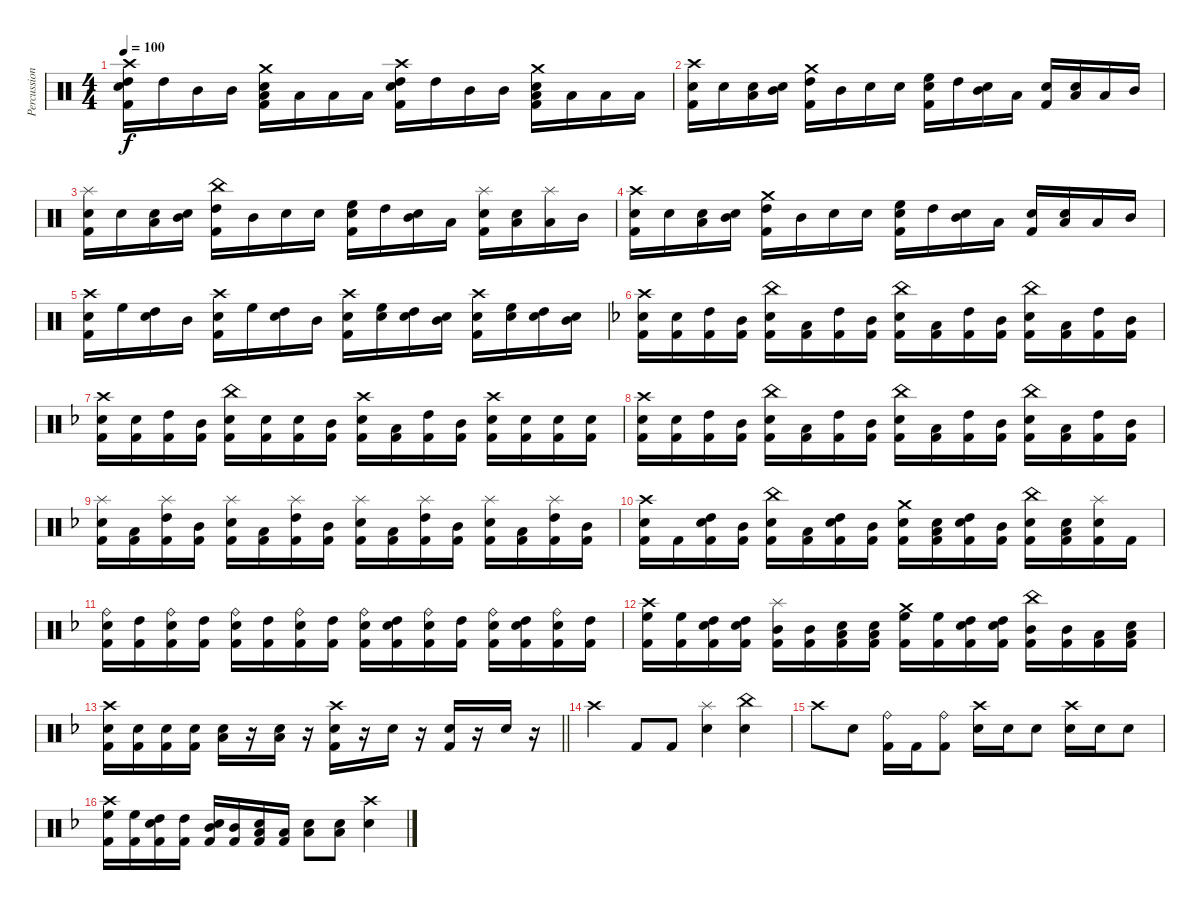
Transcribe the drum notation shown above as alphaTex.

\track ("Percussion" "Percussion") {instrument percussion}
\staff {score}
\articulation defaults
\ts (4 4)
\tempo 100
\clef neutral
\ks c
("Crash high (hit)" "High Tom (hit)" "Snare (hit) 2" "Kick (hit) 2").16{dy f} "High Tom (hit)".16 "Mid Tom (hit)".16 "Mid Tom (hit)".16 ("Crash medium (hit)" "Low Tom (hit)" "Snare (hit) 2" "Kick (hit) 2").16 "Low Tom (hit)".16 "Low Floor Tom (hit)".16 "Low Floor Tom (hit)".16 ("Crash high (hit)" "High Tom (hit)" "Snare (hit) 2" "Kick (hit) 2").16 "High Tom (hit)".16 "Mid Tom (hit)".16 "Mid Tom (hit)".16 ("Crash medium (hit)" "Low Tom (hit)" "Snare (hit) 2" "Kick (hit) 2").16 "Low Tom (hit)".16 "Low Floor Tom (hit)".16 "Low Floor Tom (hit)".16 |
("Crash high (hit)" "Snare (hit) 2" "Kick (hit) 2").16 "Snare (hit) 2".16 ("Low Tom (hit)" "Snare (hit) 2").16 ("Mid Tom (hit)" "Snare (hit) 2").16 ("Crash medium (hit)" "High Tom (hit)" "Kick (hit) 2").16 "Mid Tom (hit)".16 "Snare (hit) 2".16 "Snare (hit) 2".16 ("High Floor Tom (hit)" "Snare (hit) 2" "Kick (hit) 2").16 "High Tom (hit)".16 ("Mid Tom (hit)" "Snare (hit) 2").16 "Low Tom (hit)".16 ("Snare (hit) 2" "Kick (hit) 2").16 ("Low Floor Tom (hit)" "Snare (hit) 2").16 "Low Tom (hit)".16 "Mid Tom (hit)".16 |
("Splash (hit)" "Snare (hit) 2" "Kick (hit) 2").16 "Snare (hit) 2".16 ("Low Tom (hit)" "Snare (hit) 2").16 ("Mid Tom (hit)" "Snare (hit) 2").16 ("China (hit)" "High Tom (hit)" "Kick (hit) 2").16 "Mid Tom (hit)".16 "Snare (hit) 2".16 "Snare (hit) 2".16 ("High Floor Tom (hit)" "Snare (hit) 2" "Kick (hit) 2").16 "High Tom (hit)".16 ("Mid Tom (hit)" "Snare (hit) 2").16 "Low Tom (hit)".16 ("Splash (hit)" "Snare (hit) 2" "Kick (hit) 2").16 ("Low Floor Tom (hit)" "Snare (hit) 2").16 ("Splash (hit)" "Low Tom (hit)").16 "Mid Tom (hit)".16 |
("Crash high (hit)" "Snare (hit) 2" "Kick (hit) 2").16 "Snare (hit) 2".16 ("Low Tom (hit)" "Snare (hit) 2").16 ("Mid Tom (hit)" "Snare (hit) 2").16 ("Crash medium (hit)" "High Tom (hit)" "Kick (hit) 2").16 "Mid Tom (hit)".16 "Snare (hit) 2".16 "Snare (hit) 2".16 ("High Floor Tom (hit)" "Snare (hit) 2" "Kick (hit) 2").16 "High Tom (hit)".16 ("Mid Tom (hit)" "Snare (hit) 2").16 "Low Tom (hit)".16 ("Snare (hit) 2" "Kick (hit) 2").16 ("Low Floor Tom (hit)" "Snare (hit) 2").16 "Low Tom (hit)".16 "Mid Tom (hit)".16 |
("Crash high (hit)" "Snare (hit) 2" "Kick (hit) 2").16 "High Floor Tom (hit)".16 ("High Tom (hit)" "Snare (hit) 2").16 "Mid Tom (hit)".16 ("Crash high (hit)" "Snare (hit) 2" "Kick (hit) 2").16 "High Floor Tom (hit)".16 ("High Tom (hit)" "Snare (hit) 2").16 "Mid Tom (hit)".16 ("Crash high (hit)" "Snare (hit) 2" "Kick (hit) 2").16 ("High Floor Tom (hit)" "Snare (hit) 2").16 ("High Tom (hit)" "Snare (hit) 2").16 ("Mid Tom (hit)" "Snare (hit) 2").16 ("Crash high (hit)" "Snare (hit) 2" "Kick (hit) 2").16 ("High Floor Tom (hit)" "Snare (hit) 2").16 ("High Tom (hit)" "Snare (hit) 2").16 ("Mid Tom (hit)" "Snare (hit) 2").16 |
\ks dminor
("Crash high (hit)" "Snare (hit) 2" "Kick (hit) 2").16 ("Snare (hit) 2" "Kick (hit) 2").16 ("High Tom (hit)" "Kick (hit) 2").16 ("Mid Tom (hit)" "Kick (hit) 2").16 ("China (hit)" "Snare (hit) 2" "Kick (hit) 2").16 ("Low Tom (hit)" "Kick (hit) 2").16 ("High Tom (hit)" "Kick (hit) 2").16 ("Mid Tom (hit)" "Kick (hit) 2").16 ("China (hit)" "Snare (hit) 2" "Kick (hit) 2").16 ("Low Tom (hit)" "Kick (hit) 2").16 ("High Tom (hit)" "Kick (hit) 2").16 ("Mid Tom (hit)" "Kick (hit) 2").16 ("China (hit)" "Snare (hit) 2" "Kick (hit) 2").16 ("Low Tom (hit)" "Kick (hit) 2").16 ("High Tom (hit)" "Kick (hit) 2").16 ("Mid Tom (hit)" "Kick (hit) 2").16 |
("Crash high (hit)" "Snare (hit) 2" "Kick (hit) 2").16 ("Snare (hit) 2" "Kick (hit) 2").16 ("High Tom (hit)" "Kick (hit) 2").16 ("Mid Tom (hit)" "Kick (hit) 2").16 ("China (hit)" "Snare (hit) 2" "Kick (hit) 2").16 ("Snare (hit) 2" "Kick (hit) 2").16 ("Snare (hit) 2" "Kick (hit) 2").16 ("Mid Tom (hit)" "Kick (hit) 2").16 ("Crash high (hit)" "Snare (hit) 2" "Kick (hit) 2").16 ("Low Tom (hit)" "Kick (hit) 2").16 ("High Tom (hit)" "Kick (hit) 2").16 ("Mid Tom (hit)" "Kick (hit) 2").16 ("Crash high (hit)" "Snare (hit) 2" "Kick (hit) 2").16 ("Snare (hit) 2" "Kick (hit) 2").16 ("Snare (hit) 2" "Kick (hit) 2").16 ("Snare (hit) 2" "Kick (hit) 2").16 |
("Crash high (hit)" "Snare (hit) 2" "Kick (hit) 2").16 ("Snare (hit) 2" "Kick (hit) 2").16 ("High Tom (hit)" "Kick (hit) 2").16 ("Mid Tom (hit)" "Kick (hit) 2").16 ("China (hit)" "Snare (hit) 2" "Kick (hit) 2").16 ("Low Tom (hit)" "Kick (hit) 2").16 ("High Tom (hit)" "Kick (hit) 2").16 ("Mid Tom (hit)" "Kick (hit) 2").16 ("China (hit)" "Snare (hit) 2" "Kick (hit) 2").16 ("Low Tom (hit)" "Kick (hit) 2").16 ("High Tom (hit)" "Kick (hit) 2").16 ("Mid Tom (hit)" "Kick (hit) 2").16 ("China (hit)" "Snare (hit) 2" "Kick (hit) 2").16 ("Low Tom (hit)" "Kick (hit) 2").16 ("High Tom (hit)" "Kick (hit) 2").16 ("Mid Tom (hit)" "Kick (hit) 2").16 |
("Splash (hit)" "Snare (hit) 2" "Kick (hit) 2").16 ("Low Tom (hit)" "Kick (hit) 2").16 ("Splash (hit)" "High Tom (hit)" "Kick (hit) 2").16 ("Mid Tom (hit)" "Kick (hit) 2").16 ("Splash (hit)" "Snare (hit) 2" "Kick (hit) 2").16 ("Low Tom (hit)" "Kick (hit) 2").16 ("Splash (hit)" "High Tom (hit)" "Kick (hit) 2").16 ("Mid Tom (hit)" "Kick (hit) 2").16 ("Splash (hit)" "Snare (hit) 2" "Kick (hit) 2").16 ("Low Tom (hit)" "Kick (hit) 2").16 ("Splash (hit)" "High Tom (hit)" "Kick (hit) 2").16 ("Mid Tom (hit)" "Kick (hit) 2").16 ("Splash (hit)" "Snare (hit) 2" "Kick (hit) 2").16 ("Low Tom (hit)" "Kick (hit) 2").16 ("Splash (hit)" "High Tom (hit)" "Kick (hit) 2").16 ("Mid Tom (hit)" "Kick (hit) 2").16 |
("Crash high (hit)" "Snare (hit) 2" "Kick (hit) 2").16 "Kick (hit) 2".16 ("High Tom (hit)" "Snare (hit) 2" "Kick (hit) 2").16 ("Mid Tom (hit)" "Kick (hit) 2").16 ("China (hit)" "Snare (hit) 2" "Kick (hit) 2").16 ("Low Tom (hit)" "Kick (hit) 2").16 ("High Tom (hit)" "Snare (hit) 2" "Kick (hit) 2").16 ("Mid Tom (hit)" "Kick (hit) 2").16 ("Crash medium (hit)" "Snare (hit) 2" "Kick (hit) 2").16 ("Low Tom (hit)" "Snare (hit) 2" "Kick (hit) 2").16 ("High Tom (hit)" "Snare (hit) 2" "Kick (hit) 2").16 ("Mid Tom (hit)" "Kick (hit) 2").16 ("China (hit)" "Snare (hit) 2" "Kick (hit) 2").16 ("Low Tom (hit)" "Snare (hit) 2" "Kick (hit) 2").16 ("Splash (hit)" "Snare (hit) 2" "Kick (hit) 2").16 "Kick (hit) 2".16 |
("Ride (bell)" "Snare (hit) 2" "Kick (hit) 2").16 ("High Tom (hit)" "Kick (hit) 2").16 ("Ride (bell)" "Snare (hit) 2" "Kick (hit) 2").16 ("High Tom (hit)" "Kick (hit) 2").16 ("Ride (bell)" "Snare (hit) 2" "Kick (hit) 2").16 ("High Tom (hit)" "Kick (hit) 2").16 ("Ride (bell)" "Snare (hit) 2" "Kick (hit) 2").16 ("High Tom (hit)" "Kick (hit) 2").16 ("Ride (bell)" "Snare (hit) 2" "Kick (hit) 2").16 ("High Tom (hit)" "Snare (hit) 2" "Kick (hit) 2").16 ("Ride (bell)" "Snare (hit) 2" "Kick (hit) 2").16 ("High Tom (hit)" "Kick (hit) 2").16 ("Ride (bell)" "Snare (hit) 2" "Kick (hit) 2").16 ("High Tom (hit)" "Snare (hit) 2" "Kick (hit) 2").16 ("Ride (bell)" "Snare (hit) 2" "Kick (hit) 2").16 ("High Tom (hit)" "Kick (hit) 2").16 |
("Crash high (hit)" "High Floor Tom (hit)" "Kick (hit) 2").16 ("High Floor Tom (hit)" "Kick (hit) 2").16 ("High Tom (hit)" "Snare (hit) 2" "Kick (hit) 2").16 ("High Tom (hit)" "Snare (hit) 2" "Kick (hit) 2").16 ("Splash (hit)" "Mid Tom (hit)" "Kick (hit) 2").16 ("Mid Tom (hit)" "Kick (hit) 2").16 ("Low Tom (hit)" "Snare (hit) 2" "Kick (hit) 2").16 ("Low Tom (hit)" "Snare (hit) 2" "Kick (hit) 2").16 ("Crash medium (hit)" "High Floor Tom (hit)" "Kick (hit) 2").16 ("High Floor Tom (hit)" "Kick (hit) 2").16 ("High Tom (hit)" "Snare (hit) 2" "Kick (hit) 2").16 ("High Tom (hit)" "Snare (hit) 2" "Kick (hit) 2").16 ("China (hit)" "Mid Tom (hit)" "Kick (hit) 2").16 ("Mid Tom (hit)" "Kick (hit) 2").16 ("Low Tom (hit)" "Kick (hit) 2").16 ("Low Tom (hit)" "Snare (hit) 2" "Kick (hit) 2").16 |
\barLineRight lightlight
("Crash high (hit)" "Snare (hit) 2" "Kick (hit) 2").16 ("Snare (hit) 2" "Kick (hit) 2").16 ("Snare (hit) 2" "Kick (hit) 2").16 ("Snare (hit) 2" "Kick (hit) 2").16 ("Low Tom (hit)" "Snare (hit) 2").16 r.16 ("Low Floor Tom (hit)" "Snare (hit) 2").16 r.16 ("Crash high (hit)" "Snare (hit) 2" "Kick (hit) 2").16 r.16 "Snare (hit) 2".16 r.16 ("Snare (hit) 2" "Kick (hit) 2").16 r.16 "Snare (hit) 2".16 r.16 |
"Crash high (hit)".4 "Kick (hit) 2".8 "Kick (hit) 2".8 ("Splash (hit)" "Snare (hit) 2").4 ("China (hit)" "Snare (hit) 2").4 |
"Crash high (hit)".8 "Snare (hit) 2".8 ("Ride (bell)" "Kick (hit) 2").16 "Kick (hit) 2".16 ("Ride (bell)" "Kick (hit) 2").8 ("Crash high (hit)" "Snare (hit) 2").16 "Snare (hit) 2".16 "Snare (hit) 2".8 ("Crash high (hit)" "Snare (hit) 2").16 "Snare (hit) 2".16 "Snare (hit) 2".8 |
("Crash high (hit)" "High Floor Tom (hit)" "Kick (hit) 2").16 ("High Floor Tom (hit)" "Kick (hit) 2").16 ("High Tom (hit)" "Snare (hit) 2" "Kick (hit) 2").16 ("High Tom (hit)" "Kick (hit) 2").16 ("Mid Tom (hit)" "Snare (hit) 2" "Kick (hit) 2").16 ("Mid Tom (hit)" "Kick (hit) 2").16 ("Low Tom (hit)" "Snare (hit) 2" "Kick (hit) 2").16 ("Low Tom (hit)" "Kick (hit) 2").16 ("Low Floor Tom (hit)" "Snare (hit) 2").8 ("Low Floor Tom (hit)" "Snare (hit) 2").8 ("Crash high (hit)" "Snare (hit) 2").4
